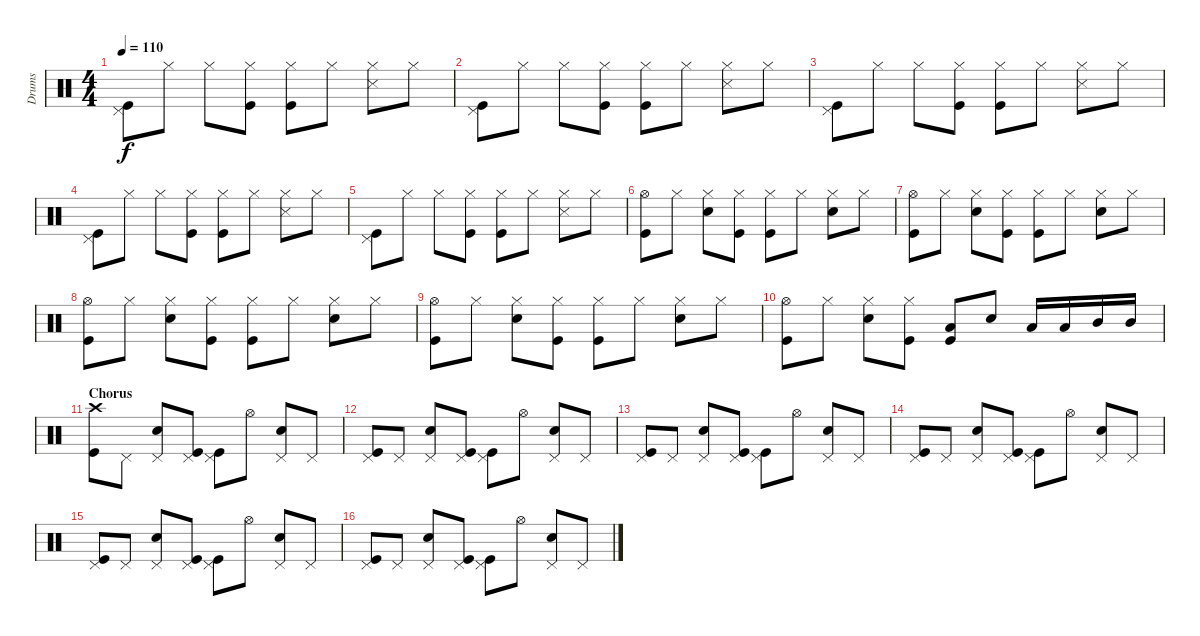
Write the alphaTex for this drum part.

\track ("Drums" "Drums") {instrument percussion}
\staff {score}
\articulation defaults
\ts (4 4)
\tempo 110
\clef neutral
\ks c
("Pedal Hi-Hat (hit)" "Kick (hit)").8{dy f} "Hi-Hat (closed)".8 "Hi-Hat (closed)".8 ("Hi-Hat (closed)" "Kick (hit)").8 ("Hi-Hat (closed)" "Kick (hit)").8 "Hi-Hat (closed)".8 ("Hi-Hat (closed)" "Snare (side stick) 3").8 "Hi-Hat (closed)".8 |
("Pedal Hi-Hat (hit)" "Kick (hit)").8 "Hi-Hat (closed)".8 "Hi-Hat (closed)".8 ("Hi-Hat (closed)" "Kick (hit)").8 ("Hi-Hat (closed)" "Kick (hit)").8 "Hi-Hat (closed)".8 ("Hi-Hat (closed)" "Snare (side stick) 3").8 "Hi-Hat (closed)".8 |
("Pedal Hi-Hat (hit)" "Kick (hit)").8 "Hi-Hat (closed)".8 "Hi-Hat (closed)".8 ("Hi-Hat (closed)" "Kick (hit)").8 ("Hi-Hat (closed)" "Kick (hit)").8 "Hi-Hat (closed)".8 ("Hi-Hat (closed)" "Snare (side stick) 3").8 "Hi-Hat (closed)".8 |
("Pedal Hi-Hat (hit)" "Kick (hit)").8 "Hi-Hat (closed)".8 "Hi-Hat (closed)".8 ("Hi-Hat (closed)" "Kick (hit)").8 ("Hi-Hat (closed)" "Kick (hit)").8 "Hi-Hat (closed)".8 ("Hi-Hat (closed)" "Snare (side stick) 3").8 "Hi-Hat (closed)".8 |
("Pedal Hi-Hat (hit)" "Kick (hit)").8 "Hi-Hat (closed)".8 "Hi-Hat (closed)".8 ("Hi-Hat (closed)" "Kick (hit)").8 ("Hi-Hat (closed)" "Kick (hit)").8 "Hi-Hat (closed)".8 ("Hi-Hat (closed)" "Snare (side stick) 3").8 "Hi-Hat (closed)".8 |
("Hi-Hat (open)" "Kick (hit)").8 "Hi-Hat (closed)".8 ("Hi-Hat (closed)" "Snare (hit) 2").8 ("Hi-Hat (closed)" "Kick (hit)").8 ("Hi-Hat (closed)" "Kick (hit)").8 "Hi-Hat (closed)".8 ("Hi-Hat (closed)" "Snare (hit) 2").8 "Hi-Hat (closed)".8 |
("Hi-Hat (open)" "Kick (hit)").8 "Hi-Hat (closed)".8 ("Hi-Hat (closed)" "Snare (hit) 2").8 ("Hi-Hat (closed)" "Kick (hit)").8 ("Hi-Hat (closed)" "Kick (hit)").8 "Hi-Hat (closed)".8 ("Hi-Hat (closed)" "Snare (hit) 2").8 "Hi-Hat (closed)".8 |
("Hi-Hat (open)" "Kick (hit)").8 "Hi-Hat (closed)".8 ("Hi-Hat (closed)" "Snare (hit) 2").8 ("Hi-Hat (closed)" "Kick (hit)").8 ("Hi-Hat (closed)" "Kick (hit)").8 "Hi-Hat (closed)".8 ("Hi-Hat (closed)" "Snare (hit) 2").8 "Hi-Hat (closed)".8 |
("Hi-Hat (open)" "Kick (hit)").8 "Hi-Hat (closed)".8 ("Hi-Hat (closed)" "Snare (hit) 2").8 ("Hi-Hat (closed)" "Kick (hit)").8 ("Hi-Hat (closed)" "Kick (hit)").8 "Hi-Hat (closed)".8 ("Hi-Hat (closed)" "Snare (hit) 2").8 "Hi-Hat (closed)".8 |
("Hi-Hat (open)" "Kick (hit)").8 "Hi-Hat (closed)".8 ("Hi-Hat (closed)" "Snare (hit) 2").8 ("Hi-Hat (closed)" "Kick (hit)").8 ("Low Tom (hit)" "Kick (hit)").8 "Snare (hit) 2".8 "Low Tom (hit)".16 "Low Tom (hit)".16 "Mid Tom (hit)".16 "Mid Tom (hit)".16 |
\section ("" "Chorus")
("Crash high (hit)" "Kick (hit)").8 "Pedal Hi-Hat (hit)".8 ("Pedal Hi-Hat (hit)" "Snare (hit) 2").8 ("Pedal Hi-Hat (hit)" "Kick (hit)").8 ("Pedal Hi-Hat (hit)" "Kick (hit)").8 "Hi-Hat (open)".8 ("Pedal Hi-Hat (hit)" "Snare (hit) 2").8 "Pedal Hi-Hat (hit)".8 |
("Pedal Hi-Hat (hit)" "Kick (hit)").8 "Pedal Hi-Hat (hit)".8 ("Pedal Hi-Hat (hit)" "Snare (hit) 2").8 ("Pedal Hi-Hat (hit)" "Kick (hit)").8 ("Pedal Hi-Hat (hit)" "Kick (hit)").8 "Hi-Hat (open)".8 ("Pedal Hi-Hat (hit)" "Snare (hit) 2").8 "Pedal Hi-Hat (hit)".8 |
("Pedal Hi-Hat (hit)" "Kick (hit)").8 "Pedal Hi-Hat (hit)".8 ("Pedal Hi-Hat (hit)" "Snare (hit) 2").8 ("Pedal Hi-Hat (hit)" "Kick (hit)").8 ("Pedal Hi-Hat (hit)" "Kick (hit)").8 "Hi-Hat (open)".8 ("Pedal Hi-Hat (hit)" "Snare (hit) 2").8 "Pedal Hi-Hat (hit)".8 |
("Pedal Hi-Hat (hit)" "Kick (hit)").8 "Pedal Hi-Hat (hit)".8 ("Pedal Hi-Hat (hit)" "Snare (hit) 2").8 ("Pedal Hi-Hat (hit)" "Kick (hit)").8 ("Pedal Hi-Hat (hit)" "Kick (hit)").8 "Hi-Hat (open)".8 ("Pedal Hi-Hat (hit)" "Snare (hit) 2").8 "Pedal Hi-Hat (hit)".8 |
("Pedal Hi-Hat (hit)" "Kick (hit)").8 "Pedal Hi-Hat (hit)".8 ("Pedal Hi-Hat (hit)" "Snare (hit) 2").8 ("Pedal Hi-Hat (hit)" "Kick (hit)").8 ("Pedal Hi-Hat (hit)" "Kick (hit)").8 "Hi-Hat (open)".8 ("Pedal Hi-Hat (hit)" "Snare (hit) 2").8 "Pedal Hi-Hat (hit)".8 |
("Pedal Hi-Hat (hit)" "Kick (hit)").8 "Pedal Hi-Hat (hit)".8 ("Pedal Hi-Hat (hit)" "Snare (hit) 2").8 ("Pedal Hi-Hat (hit)" "Kick (hit)").8 ("Pedal Hi-Hat (hit)" "Kick (hit)").8 "Hi-Hat (open)".8 ("Pedal Hi-Hat (hit)" "Snare (hit) 2").8 "Pedal Hi-Hat (hit)".8
